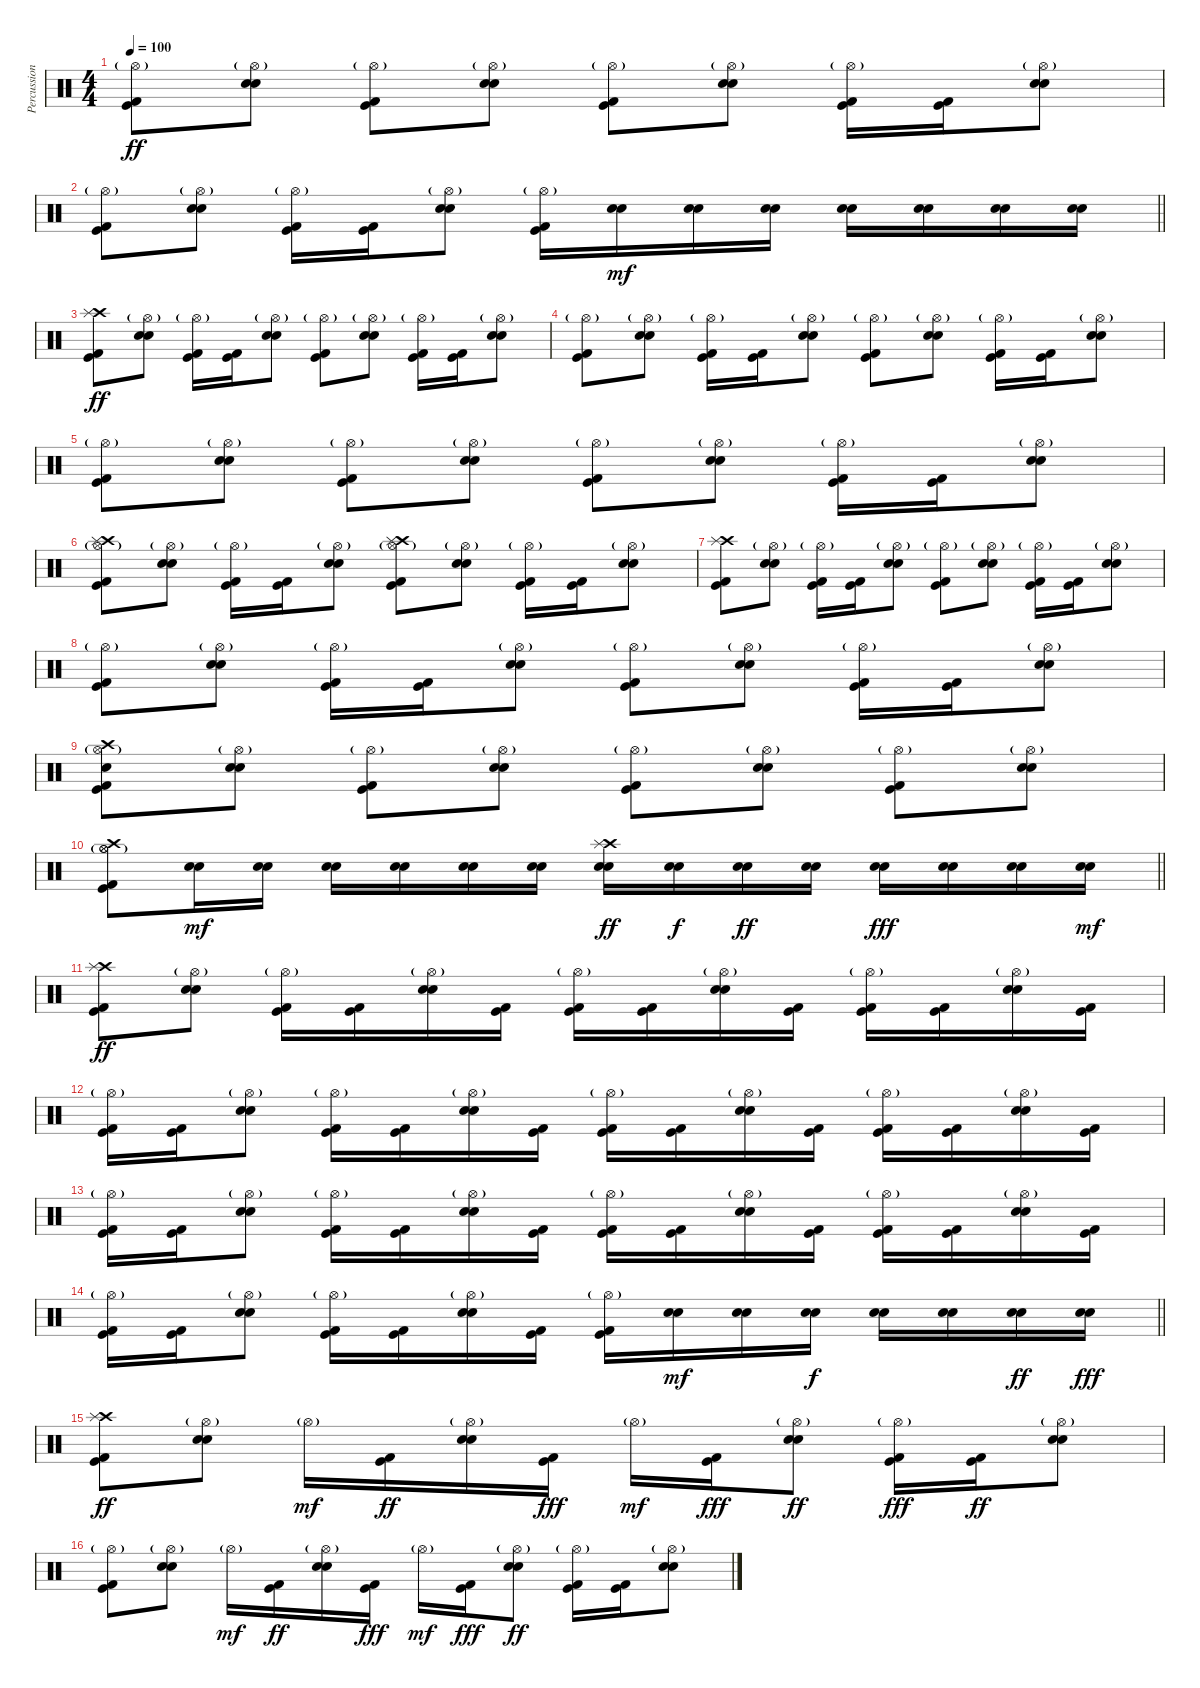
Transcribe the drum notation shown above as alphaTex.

\track ("Percussion" "Percussion") {instrument percussion}
\staff {score}
\articulation defaults
\ts (4 4)
\tempo 100
\clef neutral
\ks c
("Hi-Hat (open)"{g} "Kick (hit)" "Kick (hit) 2").8{dy ff} ("Hi-Hat (open)"{g} "Electric Snare (hit)" "Snare (hit) 2").8 ("Hi-Hat (open)"{g} "Kick (hit)" "Kick (hit) 2").8 ("Hi-Hat (open)"{g} "Electric Snare (hit)" "Snare (hit) 2").8 ("Hi-Hat (open)"{g} "Kick (hit)" "Kick (hit) 2").8 ("Hi-Hat (open)"{g} "Electric Snare (hit)" "Snare (hit) 2").8 ("Hi-Hat (open)"{g} "Kick (hit)" "Kick (hit) 2").16 ("Kick (hit)" "Kick (hit) 2").16 ("Hi-Hat (open)"{g} "Electric Snare (hit)" "Snare (hit) 2").8 |
\barLineRight lightlight
("Hi-Hat (open)"{g} "Kick (hit)" "Kick (hit) 2").8 ("Hi-Hat (open)"{g} "Electric Snare (hit)" "Snare (hit) 2").8 ("Hi-Hat (open)"{g} "Kick (hit)" "Kick (hit) 2").16 ("Kick (hit)" "Kick (hit) 2").16 ("Hi-Hat (open)"{g} "Electric Snare (hit)" "Snare (hit) 2").8 ("Hi-Hat (open)"{g} "Kick (hit)" "Kick (hit) 2").16 ("Electric Snare (hit)" "Snare (hit) 2").16{dy mf} ("Electric Snare (hit)" "Snare (hit) 2").16 ("Electric Snare (hit)" "Snare (hit) 2").16 ("Electric Snare (hit)" "Snare (hit) 2").16 ("Electric Snare (hit)" "Snare (hit) 2").16 ("Electric Snare (hit)" "Snare (hit) 2").16 ("Electric Snare (hit)" "Snare (hit) 2").16 |
("Crash high (hit)" "Splash (hit)" "Kick (hit)" "Kick (hit) 2").8{dy ff} ("Hi-Hat (open)"{g} "Electric Snare (hit)" "Snare (hit) 2").8 ("Hi-Hat (open)"{g} "Kick (hit)" "Kick (hit) 2").16 ("Kick (hit)" "Kick (hit) 2").16 ("Hi-Hat (open)"{g} "Electric Snare (hit)" "Snare (hit) 2").8 ("Hi-Hat (open)"{g} "Kick (hit)" "Kick (hit) 2").8 ("Hi-Hat (open)"{g} "Electric Snare (hit)" "Snare (hit) 2").8 ("Hi-Hat (open)"{g} "Kick (hit)" "Kick (hit) 2").16 ("Kick (hit)" "Kick (hit) 2").16 ("Hi-Hat (open)"{g} "Electric Snare (hit)" "Snare (hit) 2").8 |
("Hi-Hat (open)"{g} "Kick (hit)" "Kick (hit) 2").8 ("Hi-Hat (open)"{g} "Electric Snare (hit)" "Snare (hit) 2").8 ("Hi-Hat (open)"{g} "Kick (hit)" "Kick (hit) 2").16 ("Kick (hit)" "Kick (hit) 2").16 ("Hi-Hat (open)"{g} "Electric Snare (hit)" "Snare (hit) 2").8 ("Hi-Hat (open)"{g} "Kick (hit)" "Kick (hit) 2").8 ("Hi-Hat (open)"{g} "Electric Snare (hit)" "Snare (hit) 2").8 ("Hi-Hat (open)"{g} "Kick (hit)" "Kick (hit) 2").16 ("Kick (hit)" "Kick (hit) 2").16 ("Hi-Hat (open)"{g} "Electric Snare (hit)" "Snare (hit) 2").8 |
("Hi-Hat (open)"{g} "Kick (hit)" "Kick (hit) 2").8 ("Hi-Hat (open)"{g} "Electric Snare (hit)" "Snare (hit) 2").8 ("Hi-Hat (open)"{g} "Kick (hit)" "Kick (hit) 2").8 ("Hi-Hat (open)"{g} "Electric Snare (hit)" "Snare (hit) 2").8 ("Hi-Hat (open)"{g} "Kick (hit)" "Kick (hit) 2").8 ("Hi-Hat (open)"{g} "Electric Snare (hit)" "Snare (hit) 2").8 ("Hi-Hat (open)"{g} "Kick (hit)" "Kick (hit) 2").16 ("Kick (hit)" "Kick (hit) 2").16 ("Hi-Hat (open)"{g} "Electric Snare (hit)" "Snare (hit) 2").8 |
("Hi-Hat (open)"{g} "Crash high (hit)" "Splash (hit)" "Kick (hit)" "Kick (hit) 2").8 ("Hi-Hat (open)"{g} "Electric Snare (hit)" "Snare (hit) 2").8 ("Hi-Hat (open)"{g} "Kick (hit)" "Kick (hit) 2").16 ("Kick (hit)" "Kick (hit) 2").16 ("Hi-Hat (open)"{g} "Electric Snare (hit)" "Snare (hit) 2").8 ("Hi-Hat (open)"{g} "Crash high (hit)" "Splash (hit)" "Kick (hit)" "Kick (hit) 2").8 ("Hi-Hat (open)"{g} "Electric Snare (hit)" "Snare (hit) 2").8 ("Hi-Hat (open)"{g} "Kick (hit)" "Kick (hit) 2").16 ("Kick (hit)" "Kick (hit) 2").16 ("Hi-Hat (open)"{g} "Electric Snare (hit)" "Snare (hit) 2").8 |
("Crash high (hit)" "Splash (hit)" "Kick (hit)" "Kick (hit) 2").8 ("Hi-Hat (open)"{g} "Electric Snare (hit)" "Snare (hit) 2").8 ("Hi-Hat (open)"{g} "Kick (hit)" "Kick (hit) 2").16 ("Kick (hit)" "Kick (hit) 2").16 ("Hi-Hat (open)"{g} "Electric Snare (hit)" "Snare (hit) 2").8 ("Hi-Hat (open)"{g} "Kick (hit)" "Kick (hit) 2").8 ("Hi-Hat (open)"{g} "Electric Snare (hit)" "Snare (hit) 2").8 ("Hi-Hat (open)"{g} "Kick (hit)" "Kick (hit) 2").16 ("Kick (hit)" "Kick (hit) 2").16 ("Hi-Hat (open)"{g} "Electric Snare (hit)" "Snare (hit) 2").8 |
("Hi-Hat (open)"{g} "Kick (hit)" "Kick (hit) 2").8 ("Hi-Hat (open)"{g} "Electric Snare (hit)" "Snare (hit) 2").8 ("Hi-Hat (open)"{g} "Kick (hit)" "Kick (hit) 2").16 ("Kick (hit)" "Kick (hit) 2").16 ("Hi-Hat (open)"{g} "Electric Snare (hit)" "Snare (hit) 2").8 ("Hi-Hat (open)"{g} "Kick (hit)" "Kick (hit) 2").8 ("Hi-Hat (open)"{g} "Electric Snare (hit)" "Snare (hit) 2").8 ("Hi-Hat (open)"{g} "Kick (hit)" "Kick (hit) 2").16 ("Kick (hit)" "Kick (hit) 2").16 ("Hi-Hat (open)"{g} "Electric Snare (hit)" "Snare (hit) 2").8 |
("Hi-Hat (open)"{g} "Crash high (hit)" "Snare (hit) 2" "Kick (hit)" "Kick (hit) 2").8 ("Hi-Hat (open)"{g} "Electric Snare (hit)" "Snare (hit) 2").8 ("Hi-Hat (open)"{g} "Kick (hit)" "Kick (hit) 2").8 ("Hi-Hat (open)"{g} "Electric Snare (hit)" "Snare (hit) 2").8 ("Hi-Hat (open)"{g} "Kick (hit)" "Kick (hit) 2").8 ("Hi-Hat (open)"{g} "Electric Snare (hit)" "Snare (hit) 2").8 ("Hi-Hat (open)"{g} "Kick (hit)" "Kick (hit) 2").8 ("Hi-Hat (open)"{g} "Electric Snare (hit)" "Snare (hit) 2").8 |
\barLineRight lightlight
("Hi-Hat (open)"{g} "Crash high (hit)" "Hi-Hat (open)" "Kick (hit)" "Kick (hit) 2").8 ("Electric Snare (hit)" "Snare (hit) 2").16{dy mf} ("Electric Snare (hit)" "Snare (hit) 2").16 ("Electric Snare (hit)" "Snare (hit) 2").16 ("Electric Snare (hit)" "Snare (hit) 2").16 ("Electric Snare (hit)" "Snare (hit) 2").16 ("Electric Snare (hit)" "Snare (hit) 2").16 ("Crash high (hit)" "Electric Snare (hit)" "Snare (hit) 2" "Splash (hit)").16{dy ff} ("Electric Snare (hit)" "Snare (hit) 2").16{dy f} ("Electric Snare (hit)" "Snare (hit) 2").16{dy ff} ("Electric Snare (hit)" "Snare (hit) 2").16 ("Electric Snare (hit)" "Snare (hit) 2").16{dy fff} ("Electric Snare (hit)" "Snare (hit) 2").16 ("Electric Snare (hit)" "Snare (hit) 2").16 ("Electric Snare (hit)" "Snare (hit) 2").16{dy mf} |
("Crash high (hit)" "Splash (hit)" "Kick (hit)" "Kick (hit) 2").8{dy ff} ("Hi-Hat (open)"{g} "Electric Snare (hit)" "Snare (hit) 2").8 ("Hi-Hat (open)"{g} "Kick (hit)" "Kick (hit) 2").16 ("Kick (hit)" "Kick (hit) 2").16 ("Hi-Hat (open)"{g} "Electric Snare (hit)" "Snare (hit) 2").16 ("Kick (hit)" "Kick (hit) 2").16 ("Hi-Hat (open)"{g} "Kick (hit)" "Kick (hit) 2").16 ("Kick (hit)" "Kick (hit) 2").16 ("Hi-Hat (open)"{g} "Electric Snare (hit)" "Snare (hit) 2").16 ("Kick (hit)" "Kick (hit) 2").16 ("Hi-Hat (open)"{g} "Kick (hit)" "Kick (hit) 2").16 ("Kick (hit)" "Kick (hit) 2").16 ("Hi-Hat (open)"{g} "Electric Snare (hit)" "Snare (hit) 2").16 ("Kick (hit)" "Kick (hit) 2").16 |
("Hi-Hat (open)"{g} "Kick (hit)" "Kick (hit) 2").16 ("Kick (hit)" "Kick (hit) 2").16 ("Hi-Hat (open)"{g} "Electric Snare (hit)" "Snare (hit) 2").8 ("Hi-Hat (open)"{g} "Kick (hit)" "Kick (hit) 2").16 ("Kick (hit)" "Kick (hit) 2").16 ("Hi-Hat (open)"{g} "Electric Snare (hit)" "Snare (hit) 2").16 ("Kick (hit)" "Kick (hit) 2").16 ("Hi-Hat (open)"{g} "Kick (hit)" "Kick (hit) 2").16 ("Kick (hit)" "Kick (hit) 2").16 ("Hi-Hat (open)"{g} "Electric Snare (hit)" "Snare (hit) 2").16 ("Kick (hit)" "Kick (hit) 2").16 ("Hi-Hat (open)"{g} "Kick (hit)" "Kick (hit) 2").16 ("Kick (hit)" "Kick (hit) 2").16 ("Hi-Hat (open)"{g} "Electric Snare (hit)" "Snare (hit) 2").16 ("Kick (hit)" "Kick (hit) 2").16 |
("Hi-Hat (open)"{g} "Kick (hit)" "Kick (hit) 2").16 ("Kick (hit)" "Kick (hit) 2").16 ("Hi-Hat (open)"{g} "Electric Snare (hit)" "Snare (hit) 2").8 ("Hi-Hat (open)"{g} "Kick (hit)" "Kick (hit) 2").16 ("Kick (hit)" "Kick (hit) 2").16 ("Hi-Hat (open)"{g} "Electric Snare (hit)" "Snare (hit) 2").16 ("Kick (hit)" "Kick (hit) 2").16 ("Hi-Hat (open)"{g} "Kick (hit)" "Kick (hit) 2").16 ("Kick (hit)" "Kick (hit) 2").16 ("Hi-Hat (open)"{g} "Electric Snare (hit)" "Snare (hit) 2").16 ("Kick (hit)" "Kick (hit) 2").16 ("Hi-Hat (open)"{g} "Kick (hit)" "Kick (hit) 2").16 ("Kick (hit)" "Kick (hit) 2").16 ("Hi-Hat (open)"{g} "Electric Snare (hit)" "Snare (hit) 2").16 ("Kick (hit)" "Kick (hit) 2").16 |
\barLineRight lightlight
("Hi-Hat (open)"{g} "Kick (hit)" "Kick (hit) 2").16 ("Kick (hit)" "Kick (hit) 2").16 ("Hi-Hat (open)"{g} "Electric Snare (hit)" "Snare (hit) 2").8 ("Hi-Hat (open)"{g} "Kick (hit)" "Kick (hit) 2").16 ("Kick (hit)" "Kick (hit) 2").16 ("Hi-Hat (open)"{g} "Electric Snare (hit)" "Snare (hit) 2").16 ("Kick (hit)" "Kick (hit) 2").16 ("Hi-Hat (open)"{g} "Kick (hit)" "Kick (hit) 2").16 ("Electric Snare (hit)" "Snare (hit) 2").16{dy mf} ("Electric Snare (hit)" "Snare (hit) 2").16 ("Electric Snare (hit)" "Snare (hit) 2").16{dy f} ("Electric Snare (hit)" "Snare (hit) 2").16 ("Electric Snare (hit)" "Snare (hit) 2").16 ("Electric Snare (hit)" "Snare (hit) 2").16{dy ff} ("Electric Snare (hit)" "Snare (hit) 2").16{dy fff} |
("Crash high (hit)" "Splash (hit)" "Kick (hit)" "Kick (hit) 2").8{dy ff} ("Hi-Hat (open)"{g} "Electric Snare (hit)" "Snare (hit) 2").8 "Hi-Hat (open)"{g}.16{dy mf} ("Kick (hit)" "Kick (hit) 2").16{dy ff} ("Hi-Hat (open)"{g} "Electric Snare (hit)" "Snare (hit) 2").16 ("Kick (hit)" "Kick (hit) 2").16{dy fff} "Hi-Hat (open)"{g}.16{dy mf} ("Kick (hit)" "Kick (hit) 2").16{dy fff} ("Hi-Hat (open)"{g} "Electric Snare (hit)" "Snare (hit) 2").8{dy ff} ("Hi-Hat (open)"{g} "Kick (hit)" "Kick (hit) 2").16{dy fff} ("Kick (hit)" "Kick (hit) 2").16{dy ff} ("Hi-Hat (open)"{g} "Electric Snare (hit)" "Snare (hit) 2").8 |
("Hi-Hat (open)"{g} "Kick (hit)" "Kick (hit) 2").8 ("Hi-Hat (open)"{g} "Electric Snare (hit)" "Snare (hit) 2").8 "Hi-Hat (open)"{g}.16{dy mf} ("Kick (hit)" "Kick (hit) 2").16{dy ff} ("Hi-Hat (open)"{g} "Electric Snare (hit)" "Snare (hit) 2").16 ("Kick (hit)" "Kick (hit) 2").16{dy fff} "Hi-Hat (open)"{g}.16{dy mf} ("Kick (hit)" "Kick (hit) 2").16{dy fff} ("Hi-Hat (open)"{g} "Electric Snare (hit)" "Snare (hit) 2").8{dy ff} ("Hi-Hat (open)"{g} "Kick (hit)" "Kick (hit) 2").16 ("Kick (hit)" "Kick (hit) 2").16 ("Hi-Hat (open)"{g} "Electric Snare (hit)" "Snare (hit) 2").8
